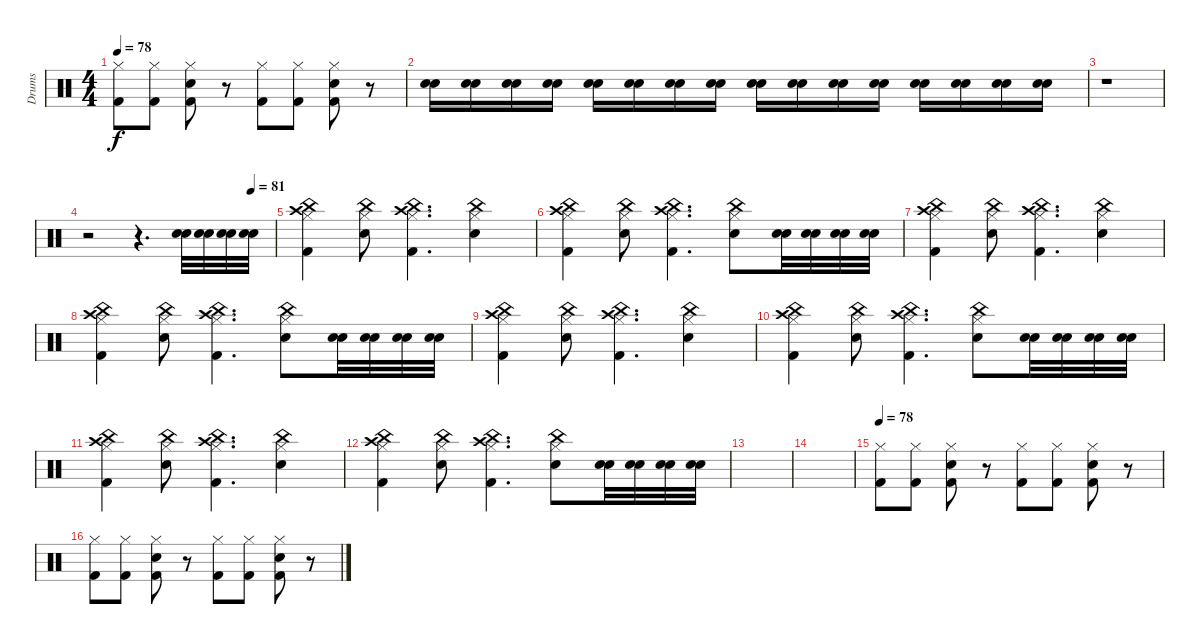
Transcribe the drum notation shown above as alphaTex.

\track ("Drums" "Drums") {instrument percussion}
\staff {score}
\articulation defaults
\ts (4 4)
\tempo 78
\clef neutral
\ks c
("Hi-Hat (closed)" "Kick (hit) 2").8{dy f} ("Hi-Hat (closed)" "Kick (hit) 2").8 ("Hi-Hat (closed)" "Kick (hit) 2" "Electric Snare (hit)").8 r.8 ("Hi-Hat (closed)" "Kick (hit) 2").8 ("Hi-Hat (closed)" "Kick (hit) 2").8 ("Hi-Hat (closed)" "Kick (hit) 2" "Electric Snare (hit)").8 r.8 |
("Electric Snare (hit)" "Snare (hit) 2").16 ("Electric Snare (hit)" "Snare (hit) 2").16 ("Electric Snare (hit)" "Snare (hit) 2").16 ("Electric Snare (hit)" "Snare (hit) 2").16 ("Electric Snare (hit)" "Snare (hit) 2").16 ("Electric Snare (hit)" "Snare (hit) 2").16 ("Electric Snare (hit)" "Snare (hit) 2").16 ("Electric Snare (hit)" "Snare (hit) 2").16 ("Electric Snare (hit)" "Snare (hit) 2").16 ("Electric Snare (hit)" "Snare (hit) 2").16 ("Electric Snare (hit)" "Snare (hit) 2").16 ("Electric Snare (hit)" "Snare (hit) 2").16 ("Electric Snare (hit)" "Snare (hit) 2").16 ("Electric Snare (hit)" "Snare (hit) 2").16 ("Electric Snare (hit)" "Snare (hit) 2").16 ("Electric Snare (hit)" "Snare (hit) 2").16 |
r.1 |
\tempo (81 0.875)
r.2 r.4{d} ("Snare (hit) 2" "Electric Snare (hit)").32 ("Snare (hit) 2" "Electric Snare (hit)").32 ("Snare (hit) 2" "Electric Snare (hit)").32 ("Snare (hit) 2" "Electric Snare (hit)").32 |
("Crash high (hit)" "China (hit)" "Hi-Hat (closed)" "Kick (hit) 2").4 ("China (hit)" "Hi-Hat (closed)" "Electric Snare (hit)").8 ("Crash high (hit)" "China (hit)" "Hi-Hat (closed)" "Kick (hit) 2").4{d} ("China (hit)" "Hi-Hat (closed)" "Electric Snare (hit)").4 |
("Crash high (hit)" "China (hit)" "Hi-Hat (closed)" "Kick (hit) 2").4 ("China (hit)" "Hi-Hat (closed)" "Electric Snare (hit)").8 ("Crash high (hit)" "China (hit)" "Hi-Hat (closed)" "Kick (hit) 2").4{d} ("China (hit)" "Hi-Hat (closed)" "Electric Snare (hit)").8 ("Snare (hit) 2" "Electric Snare (hit)").32 ("Snare (hit) 2" "Electric Snare (hit)").32 ("Snare (hit) 2" "Electric Snare (hit)").32 ("Snare (hit) 2" "Electric Snare (hit)").32 |
("Crash high (hit)" "China (hit)" "Hi-Hat (closed)" "Kick (hit) 2").4 ("China (hit)" "Hi-Hat (closed)" "Electric Snare (hit)").8 ("Crash high (hit)" "China (hit)" "Hi-Hat (closed)" "Kick (hit) 2").4{d} ("China (hit)" "Hi-Hat (closed)" "Electric Snare (hit)").4 |
("Crash high (hit)" "China (hit)" "Hi-Hat (closed)" "Kick (hit) 2").4 ("China (hit)" "Hi-Hat (closed)" "Electric Snare (hit)").8 ("Crash high (hit)" "China (hit)" "Hi-Hat (closed)" "Kick (hit) 2").4{d} ("China (hit)" "Hi-Hat (closed)" "Electric Snare (hit)").8 ("Snare (hit) 2" "Electric Snare (hit)").32 ("Snare (hit) 2" "Electric Snare (hit)").32 ("Snare (hit) 2" "Electric Snare (hit)").32 ("Snare (hit) 2" "Electric Snare (hit)").32 |
("Crash high (hit)" "China (hit)" "Hi-Hat (closed)" "Kick (hit) 2").4 ("China (hit)" "Hi-Hat (closed)" "Electric Snare (hit)").8 ("Crash high (hit)" "China (hit)" "Hi-Hat (closed)" "Kick (hit) 2").4{d} ("China (hit)" "Hi-Hat (closed)" "Electric Snare (hit)").4 |
("Crash high (hit)" "China (hit)" "Hi-Hat (closed)" "Kick (hit) 2").4 ("China (hit)" "Hi-Hat (closed)" "Electric Snare (hit)").8 ("Crash high (hit)" "China (hit)" "Hi-Hat (closed)" "Kick (hit) 2").4{d} ("China (hit)" "Hi-Hat (closed)" "Electric Snare (hit)").8 ("Snare (hit) 2" "Electric Snare (hit)").32 ("Snare (hit) 2" "Electric Snare (hit)").32 ("Snare (hit) 2" "Electric Snare (hit)").32 ("Snare (hit) 2" "Electric Snare (hit)").32 |
("Crash high (hit)" "China (hit)" "Hi-Hat (closed)" "Kick (hit) 2").4 ("China (hit)" "Hi-Hat (closed)" "Electric Snare (hit)").8 ("Crash high (hit)" "China (hit)" "Hi-Hat (closed)" "Kick (hit) 2").4{d} ("China (hit)" "Hi-Hat (closed)" "Electric Snare (hit)").4 |
("Crash high (hit)" "China (hit)" "Hi-Hat (closed)" "Kick (hit) 2").4 ("China (hit)" "Hi-Hat (closed)" "Electric Snare (hit)").8 ("Crash high (hit)" "China (hit)" "Hi-Hat (closed)" "Kick (hit) 2").4{d} ("China (hit)" "Hi-Hat (closed)" "Electric Snare (hit)").8 ("Snare (hit) 2" "Electric Snare (hit)").32 ("Snare (hit) 2" "Electric Snare (hit)").32 ("Snare (hit) 2" "Electric Snare (hit)").32 ("Snare (hit) 2" "Electric Snare (hit)").32 |
|
|
\tempo 78
("Hi-Hat (closed)" "Kick (hit) 2").8 ("Hi-Hat (closed)" "Kick (hit) 2").8 ("Hi-Hat (closed)" "Kick (hit) 2" "Electric Snare (hit)").8 r.8 ("Hi-Hat (closed)" "Kick (hit) 2").8 ("Hi-Hat (closed)" "Kick (hit) 2").8 ("Hi-Hat (closed)" "Kick (hit) 2" "Electric Snare (hit)").8 r.8 |
("Hi-Hat (closed)" "Kick (hit) 2").8 ("Hi-Hat (closed)" "Kick (hit) 2").8 ("Hi-Hat (closed)" "Kick (hit) 2" "Electric Snare (hit)").8 r.8 ("Hi-Hat (closed)" "Kick (hit) 2").8 ("Hi-Hat (closed)" "Kick (hit) 2").8 ("Hi-Hat (closed)" "Kick (hit) 2" "Electric Snare (hit)").8 r.8
